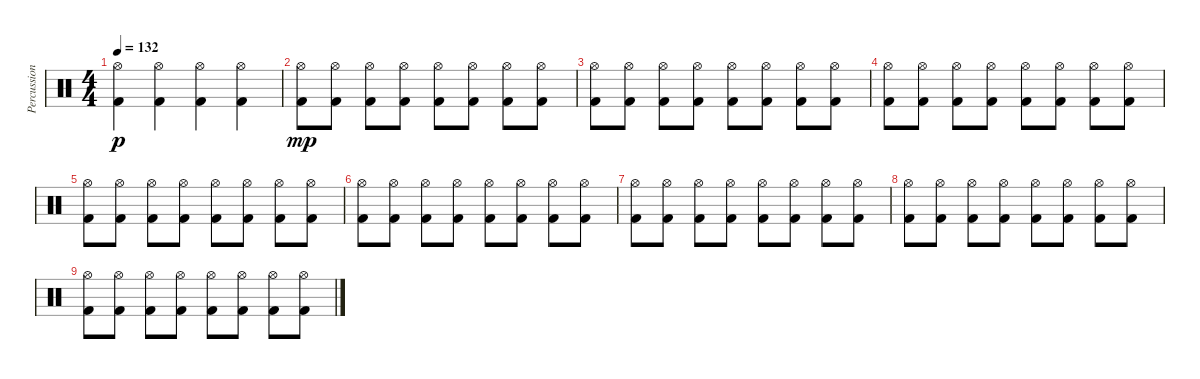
\track ("Percussion" "Percussion") {instrument percussion}
\staff {score}
\articulation defaults
\ts (4 4)
\tempo 132
\clef neutral
\ks c
("Hi-Hat (open)" "Kick (hit) 2").4{dy p} ("Hi-Hat (open)" "Kick (hit) 2").4 ("Hi-Hat (open)" "Kick (hit) 2").4 ("Hi-Hat (open)" "Kick (hit) 2").4 |
("Hi-Hat (open)" "Kick (hit) 2").8{dy mp} ("Hi-Hat (open)" "Kick (hit) 2").8 ("Hi-Hat (open)" "Kick (hit) 2").8 ("Hi-Hat (open)" "Kick (hit) 2").8 ("Hi-Hat (open)" "Kick (hit) 2").8 ("Hi-Hat (open)" "Kick (hit) 2").8 ("Hi-Hat (open)" "Kick (hit) 2").8 ("Hi-Hat (open)" "Kick (hit) 2").8 |
("Hi-Hat (open)" "Kick (hit) 2").8 ("Hi-Hat (open)" "Kick (hit) 2").8 ("Hi-Hat (open)" "Kick (hit) 2").8 ("Hi-Hat (open)" "Kick (hit) 2").8 ("Hi-Hat (open)" "Kick (hit) 2").8 ("Hi-Hat (open)" "Kick (hit) 2").8 ("Hi-Hat (open)" "Kick (hit) 2").8 ("Hi-Hat (open)" "Kick (hit) 2").8 |
("Hi-Hat (open)" "Kick (hit) 2").8 ("Hi-Hat (open)" "Kick (hit) 2").8 ("Hi-Hat (open)" "Kick (hit) 2").8 ("Hi-Hat (open)" "Kick (hit) 2").8 ("Hi-Hat (open)" "Kick (hit) 2").8 ("Hi-Hat (open)" "Kick (hit) 2").8 ("Hi-Hat (open)" "Kick (hit) 2").8 ("Hi-Hat (open)" "Kick (hit) 2").8 |
("Hi-Hat (open)" "Kick (hit) 2").8 ("Hi-Hat (open)" "Kick (hit) 2").8 ("Hi-Hat (open)" "Kick (hit) 2").8 ("Hi-Hat (open)" "Kick (hit) 2").8 ("Hi-Hat (open)" "Kick (hit) 2").8 ("Hi-Hat (open)" "Kick (hit) 2").8 ("Hi-Hat (open)" "Kick (hit) 2").8 ("Hi-Hat (open)" "Kick (hit) 2").8 |
("Hi-Hat (open)" "Kick (hit) 2").8 ("Hi-Hat (open)" "Kick (hit) 2").8 ("Hi-Hat (open)" "Kick (hit) 2").8 ("Hi-Hat (open)" "Kick (hit) 2").8 ("Hi-Hat (open)" "Kick (hit) 2").8 ("Hi-Hat (open)" "Kick (hit) 2").8 ("Hi-Hat (open)" "Kick (hit) 2").8 ("Hi-Hat (open)" "Kick (hit) 2").8 |
("Hi-Hat (open)" "Kick (hit) 2").8 ("Hi-Hat (open)" "Kick (hit) 2").8 ("Hi-Hat (open)" "Kick (hit) 2").8 ("Hi-Hat (open)" "Kick (hit) 2").8 ("Hi-Hat (open)" "Kick (hit) 2").8 ("Hi-Hat (open)" "Kick (hit) 2").8 ("Hi-Hat (open)" "Kick (hit) 2").8 ("Hi-Hat (open)" "Kick (hit) 2").8 |
("Hi-Hat (open)" "Kick (hit) 2").8 ("Hi-Hat (open)" "Kick (hit) 2").8 ("Hi-Hat (open)" "Kick (hit) 2").8 ("Hi-Hat (open)" "Kick (hit) 2").8 ("Hi-Hat (open)" "Kick (hit) 2").8 ("Hi-Hat (open)" "Kick (hit) 2").8 ("Hi-Hat (open)" "Kick (hit) 2").8 ("Hi-Hat (open)" "Kick (hit) 2").8 |
("Hi-Hat (open)" "Kick (hit) 2").8 ("Hi-Hat (open)" "Kick (hit) 2").8 ("Hi-Hat (open)" "Kick (hit) 2").8 ("Hi-Hat (open)" "Kick (hit) 2").8 ("Hi-Hat (open)" "Kick (hit) 2").8 ("Hi-Hat (open)" "Kick (hit) 2").8 ("Hi-Hat (open)" "Kick (hit) 2").8 ("Hi-Hat (open)" "Kick (hit) 2").8
